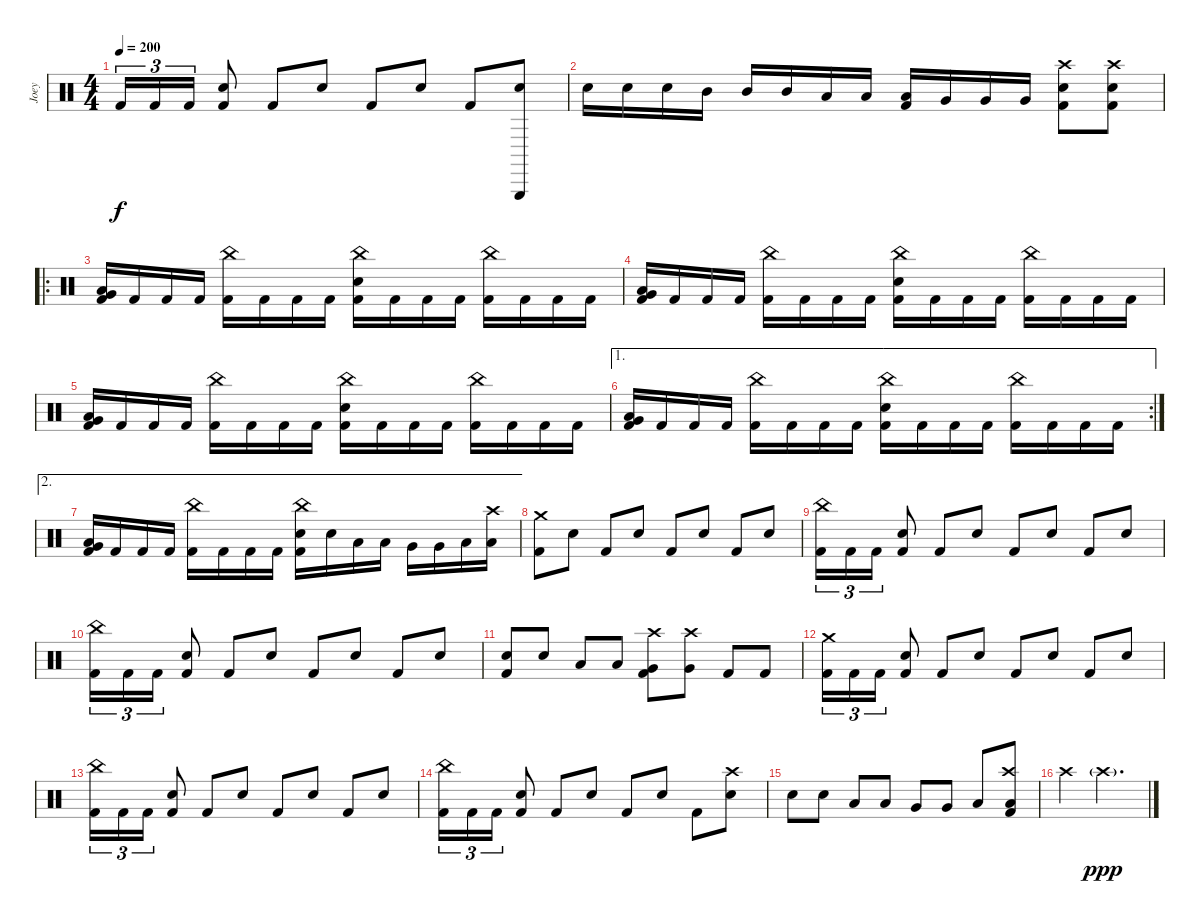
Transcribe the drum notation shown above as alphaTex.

\track ("Joey" "Joey") {instrument percussion}
\staff {score}
\articulation defaults
\ts (4 4)
\tempo 200
\clef neutral
\ks c "Kick (hit) 2".16{tu (3 2) dy f} "Kick (hit) 2".16{tu (3 2)} "Kick (hit) 2".16{tu (3 2)}
("Electric Snare (hit)" "Kick (hit) 2").8 "Kick (hit) 2".8 "Electric Snare (hit)".8 "Kick (hit) 2".8 "Electric Snare (hit)".8 "Kick (hit) 2".8 ("Triangle (hit)" "Electric Snare (hit)").8 |
"Electric Snare (hit)".16 "Electric Snare (hit)".16 "Electric Snare (hit)".16 "Mid Tom (hit)".16 "Mid Tom (hit)".16 "Mid Tom (hit)".16 "Low Tom (hit)".16 "Low Tom (hit)".16 ("Low Tom (hit)" "Kick (hit) 2").16 "Very Low Tom (hit)".16 "Very Low Tom (hit)".16 "Very Low Tom (hit)".16 ("Crash high (hit)" "Electric Snare (hit)" "Kick (hit) 2").8 ("Crash high (hit)" "Electric Snare (hit)" "Kick (hit) 2").8 |
\ro
("Very Low Tom (hit)" "Low Tom (hit)" "Kick (hit) 2").16 "Kick (hit) 2".16 "Kick (hit) 2".16 "Kick (hit) 2".16 ("China (hit)" "Kick (hit) 2").16 "Kick (hit) 2".16 "Kick (hit) 2".16 "Kick (hit) 2".16 ("China (hit)" "Electric Snare (hit)" "Kick (hit) 2").16 "Kick (hit) 2".16 "Kick (hit) 2".16 "Kick (hit) 2".16 ("China (hit)" "Kick (hit) 2").16 "Kick (hit) 2".16 "Kick (hit) 2".16 "Kick (hit) 2".16 |
("Very Low Tom (hit)" "Low Tom (hit)" "Kick (hit) 2").16 "Kick (hit) 2".16 "Kick (hit) 2".16 "Kick (hit) 2".16 ("China (hit)" "Kick (hit) 2").16 "Kick (hit) 2".16 "Kick (hit) 2".16 "Kick (hit) 2".16 ("China (hit)" "Electric Snare (hit)" "Kick (hit) 2").16 "Kick (hit) 2".16 "Kick (hit) 2".16 "Kick (hit) 2".16 ("China (hit)" "Kick (hit) 2").16 "Kick (hit) 2".16 "Kick (hit) 2".16 "Kick (hit) 2".16 |
("Very Low Tom (hit)" "Low Tom (hit)" "Kick (hit) 2").16 "Kick (hit) 2".16 "Kick (hit) 2".16 "Kick (hit) 2".16 ("China (hit)" "Kick (hit) 2").16 "Kick (hit) 2".16 "Kick (hit) 2".16 "Kick (hit) 2".16 ("China (hit)" "Electric Snare (hit)" "Kick (hit) 2").16 "Kick (hit) 2".16 "Kick (hit) 2".16 "Kick (hit) 2".16 ("China (hit)" "Kick (hit) 2").16 "Kick (hit) 2".16 "Kick (hit) 2".16 "Kick (hit) 2".16 |
\ae 1
\rc 2
("Very Low Tom (hit)" "Low Tom (hit)" "Kick (hit) 2").16 "Kick (hit) 2".16 "Kick (hit) 2".16 "Kick (hit) 2".16 ("China (hit)" "Kick (hit) 2").16 "Kick (hit) 2".16 "Kick (hit) 2".16 "Kick (hit) 2".16 ("China (hit)" "Electric Snare (hit)" "Kick (hit) 2").16 "Kick (hit) 2".16 "Kick (hit) 2".16 "Kick (hit) 2".16 ("China (hit)" "Kick (hit) 2").16 "Kick (hit) 2".16 "Kick (hit) 2".16 "Kick (hit) 2".16 |
\ae 2
("Very Low Tom (hit)" "Low Tom (hit)" "Kick (hit) 2").16 "Kick (hit) 2".16 "Kick (hit) 2".16 "Kick (hit) 2".16 ("China (hit)" "Kick (hit) 2").16 "Kick (hit) 2".16 "Kick (hit) 2".16 "Kick (hit) 2".16 ("China (hit)" "Electric Snare (hit)" "Kick (hit) 2").16 "Electric Snare (hit)".16 "Low Tom (hit)".16 "Low Tom (hit)".16 "Very Low Tom (hit)".16 "Very Low Tom (hit)".16 "Low Floor Tom (hit)".16 ("Crash high (hit)" "Low Floor Tom (hit)").16 |
("Crash medium (hit)" "Kick (hit) 2").8 "Electric Snare (hit)".8 "Kick (hit) 2".8 "Electric Snare (hit)".8 "Kick (hit) 2".8 "Electric Snare (hit)".8 "Kick (hit) 2".8 "Electric Snare (hit)".8 |
("China (hit)" "Kick (hit) 2").16{tu (3 2)} "Kick (hit) 2".16{tu (3 2)} "Kick (hit) 2".16{tu (3 2)} ("Electric Snare (hit)" "Kick (hit) 2").8 "Kick (hit) 2".8 "Electric Snare (hit)".8 "Kick (hit) 2".8 "Electric Snare (hit)".8 "Kick (hit) 2".8 "Electric Snare (hit)".8 |
("China (hit)" "Kick (hit) 2").16{tu (3 2)} "Kick (hit) 2".16{tu (3 2)} "Kick (hit) 2".16{tu (3 2)} ("Electric Snare (hit)" "Kick (hit) 2").8 "Kick (hit) 2".8 "Electric Snare (hit)".8 "Kick (hit) 2".8 "Electric Snare (hit)".8 "Kick (hit) 2".8 "Electric Snare (hit)".8 |
("Electric Snare (hit)" "Kick (hit) 2").8 "Electric Snare (hit)".8 "Low Tom (hit)".8 "Low Tom (hit)".8 ("Crash high (hit)" "Very Low Tom (hit)" "Kick (hit) 2").8 ("Crash high (hit)" "Very Low Tom (hit)").8 "Kick (hit) 2".8 "Kick (hit) 2".8 |
("Crash medium (hit)" "Kick (hit) 2").16{tu (3 2)} "Kick (hit) 2".16{tu (3 2)} "Kick (hit) 2".16{tu (3 2)} ("Electric Snare (hit)" "Kick (hit) 2").8 "Kick (hit) 2".8 "Electric Snare (hit)".8 "Kick (hit) 2".8 "Electric Snare (hit)".8 "Kick (hit) 2".8 "Electric Snare (hit)".8 |
("China (hit)" "Kick (hit) 2").16{tu (3 2)} "Kick (hit) 2".16{tu (3 2)} "Kick (hit) 2".16{tu (3 2)} ("Electric Snare (hit)" "Kick (hit) 2").8 "Kick (hit) 2".8 "Electric Snare (hit)".8 "Kick (hit) 2".8 "Electric Snare (hit)".8 "Kick (hit) 2".8 "Electric Snare (hit)".8 |
("China (hit)" "Kick (hit) 2").16{tu (3 2)} "Kick (hit) 2".16{tu (3 2)} "Kick (hit) 2".16{tu (3 2)} ("Electric Snare (hit)" "Kick (hit) 2").8 "Kick (hit) 2".8 "Electric Snare (hit)".8 "Kick (hit) 2".8 "Electric Snare (hit)".8 "Kick (hit) 2".8 ("Crash high (hit)" "Electric Snare (hit)").8 |
"Electric Snare (hit)".8 "Electric Snare (hit)".8 "Low Tom (hit)".8 "Low Tom (hit)".8 "Very Low Tom (hit)".8 "Very Low Tom (hit)".8 "Low Floor Tom (hit)".8 ("Crash high (hit)" "Low Floor Tom (hit)" "Kick (hit) 2").8 |
"Crash high (hit)".4 "Crash high (hit)"{g}.2{d dy ppp}
